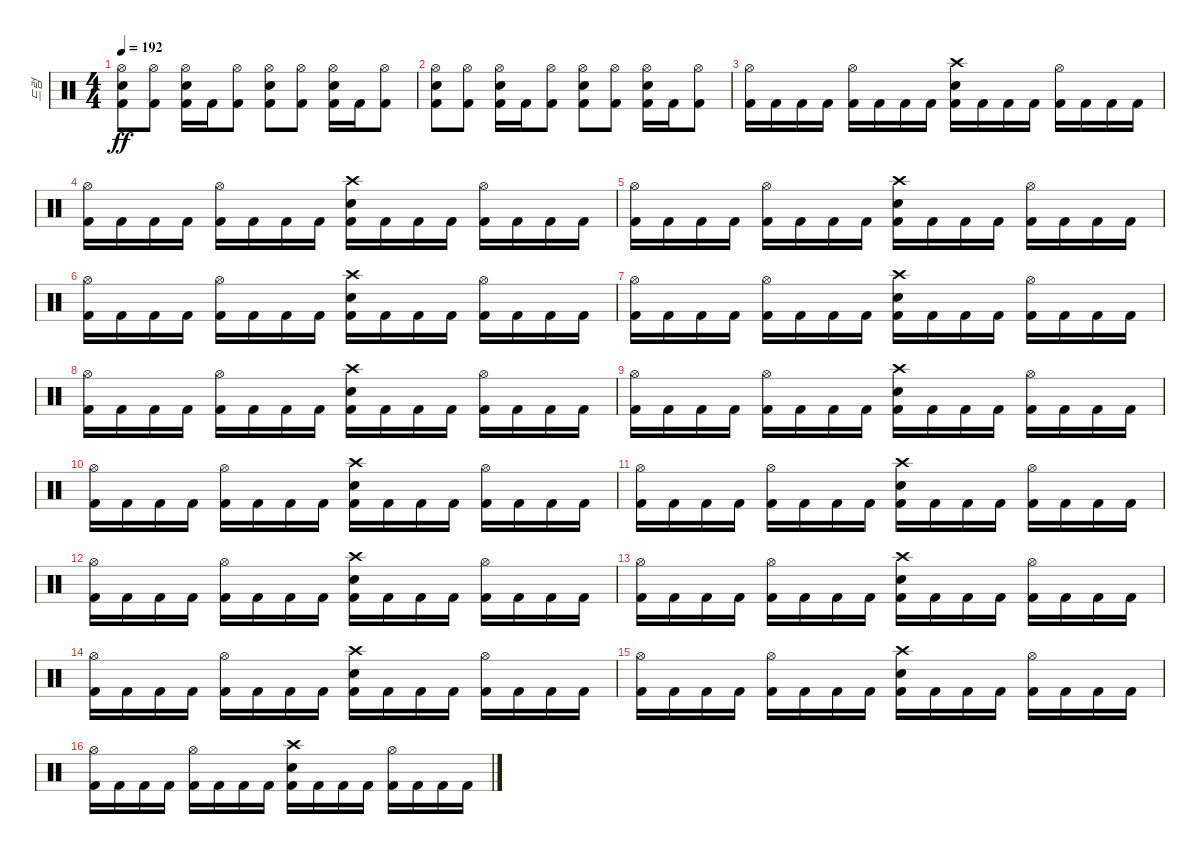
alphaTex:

\track ("드럼" "드럼") {instrument percussion}
\staff {score}
\articulation defaults
\ts (4 4)
\tempo 192
\clef neutral
\ks c
("Hi-Hat (open)" "Electric Snare (hit)" "Kick (hit) 2").8{dy ff} ("Hi-Hat (open)" "Kick (hit) 2").8 ("Hi-Hat (open)" "Electric Snare (hit)" "Kick (hit) 2").16 "Kick (hit) 2".16 ("Hi-Hat (open)" "Kick (hit) 2").8 ("Hi-Hat (open)" "Electric Snare (hit)" "Kick (hit) 2").8 ("Hi-Hat (open)" "Kick (hit) 2").8 ("Hi-Hat (open)" "Electric Snare (hit)" "Kick (hit) 2").16 "Kick (hit) 2".16 ("Hi-Hat (open)" "Kick (hit) 2").8 |
("Hi-Hat (open)" "Electric Snare (hit)" "Kick (hit) 2").8 ("Hi-Hat (open)" "Kick (hit) 2").8 ("Hi-Hat (open)" "Electric Snare (hit)" "Kick (hit) 2").16 "Kick (hit) 2".16 ("Hi-Hat (open)" "Kick (hit) 2").8 ("Hi-Hat (open)" "Electric Snare (hit)" "Kick (hit) 2").8 ("Hi-Hat (open)" "Kick (hit) 2").8 ("Hi-Hat (open)" "Electric Snare (hit)" "Kick (hit) 2").16 "Kick (hit) 2".16 ("Hi-Hat (open)" "Kick (hit) 2").8 |
("Hi-Hat (open)" "Kick (hit) 2").16 "Kick (hit) 2".16 "Kick (hit) 2".16 "Kick (hit) 2".16 ("Hi-Hat (open)" "Kick (hit) 2").16 "Kick (hit) 2".16 "Kick (hit) 2".16 "Kick (hit) 2".16 ("Crash high (hit)" "Electric Snare (hit)" "Kick (hit) 2").16 "Kick (hit) 2".16 "Kick (hit) 2".16 "Kick (hit) 2".16 ("Hi-Hat (open)" "Kick (hit) 2").16 "Kick (hit) 2".16 "Kick (hit) 2".16 "Kick (hit) 2".16 |
("Hi-Hat (open)" "Kick (hit) 2").16 "Kick (hit) 2".16 "Kick (hit) 2".16 "Kick (hit) 2".16 ("Hi-Hat (open)" "Kick (hit) 2").16 "Kick (hit) 2".16 "Kick (hit) 2".16 "Kick (hit) 2".16 ("Crash high (hit)" "Electric Snare (hit)" "Kick (hit) 2").16 "Kick (hit) 2".16 "Kick (hit) 2".16 "Kick (hit) 2".16 ("Hi-Hat (open)" "Kick (hit) 2").16 "Kick (hit) 2".16 "Kick (hit) 2".16 "Kick (hit) 2".16 |
("Hi-Hat (open)" "Kick (hit) 2").16 "Kick (hit) 2".16 "Kick (hit) 2".16 "Kick (hit) 2".16 ("Hi-Hat (open)" "Kick (hit) 2").16 "Kick (hit) 2".16 "Kick (hit) 2".16 "Kick (hit) 2".16 ("Crash high (hit)" "Electric Snare (hit)" "Kick (hit) 2").16 "Kick (hit) 2".16 "Kick (hit) 2".16 "Kick (hit) 2".16 ("Hi-Hat (open)" "Kick (hit) 2").16 "Kick (hit) 2".16 "Kick (hit) 2".16 "Kick (hit) 2".16 |
("Hi-Hat (open)" "Kick (hit) 2").16 "Kick (hit) 2".16 "Kick (hit) 2".16 "Kick (hit) 2".16 ("Hi-Hat (open)" "Kick (hit) 2").16 "Kick (hit) 2".16 "Kick (hit) 2".16 "Kick (hit) 2".16 ("Crash high (hit)" "Electric Snare (hit)" "Kick (hit) 2").16 "Kick (hit) 2".16 "Kick (hit) 2".16 "Kick (hit) 2".16 ("Hi-Hat (open)" "Kick (hit) 2").16 "Kick (hit) 2".16 "Kick (hit) 2".16 "Kick (hit) 2".16 |
("Hi-Hat (open)" "Kick (hit) 2").16 "Kick (hit) 2".16 "Kick (hit) 2".16 "Kick (hit) 2".16 ("Hi-Hat (open)" "Kick (hit) 2").16 "Kick (hit) 2".16 "Kick (hit) 2".16 "Kick (hit) 2".16 ("Crash high (hit)" "Electric Snare (hit)" "Kick (hit) 2").16 "Kick (hit) 2".16 "Kick (hit) 2".16 "Kick (hit) 2".16 ("Hi-Hat (open)" "Kick (hit) 2").16 "Kick (hit) 2".16 "Kick (hit) 2".16 "Kick (hit) 2".16 |
("Hi-Hat (open)" "Kick (hit) 2").16 "Kick (hit) 2".16 "Kick (hit) 2".16 "Kick (hit) 2".16 ("Hi-Hat (open)" "Kick (hit) 2").16 "Kick (hit) 2".16 "Kick (hit) 2".16 "Kick (hit) 2".16 ("Crash high (hit)" "Electric Snare (hit)" "Kick (hit) 2").16 "Kick (hit) 2".16 "Kick (hit) 2".16 "Kick (hit) 2".16 ("Hi-Hat (open)" "Kick (hit) 2").16 "Kick (hit) 2".16 "Kick (hit) 2".16 "Kick (hit) 2".16 |
("Hi-Hat (open)" "Kick (hit) 2").16 "Kick (hit) 2".16 "Kick (hit) 2".16 "Kick (hit) 2".16 ("Hi-Hat (open)" "Kick (hit) 2").16 "Kick (hit) 2".16 "Kick (hit) 2".16 "Kick (hit) 2".16 ("Crash high (hit)" "Electric Snare (hit)" "Kick (hit) 2").16 "Kick (hit) 2".16 "Kick (hit) 2".16 "Kick (hit) 2".16 ("Hi-Hat (open)" "Kick (hit) 2").16 "Kick (hit) 2".16 "Kick (hit) 2".16 "Kick (hit) 2".16 |
("Hi-Hat (open)" "Kick (hit) 2").16 "Kick (hit) 2".16 "Kick (hit) 2".16 "Kick (hit) 2".16 ("Hi-Hat (open)" "Kick (hit) 2").16 "Kick (hit) 2".16 "Kick (hit) 2".16 "Kick (hit) 2".16 ("Crash high (hit)" "Electric Snare (hit)" "Kick (hit) 2").16 "Kick (hit) 2".16 "Kick (hit) 2".16 "Kick (hit) 2".16 ("Hi-Hat (open)" "Kick (hit) 2").16 "Kick (hit) 2".16 "Kick (hit) 2".16 "Kick (hit) 2".16 |
("Hi-Hat (open)" "Kick (hit) 2").16 "Kick (hit) 2".16 "Kick (hit) 2".16 "Kick (hit) 2".16 ("Hi-Hat (open)" "Kick (hit) 2").16 "Kick (hit) 2".16 "Kick (hit) 2".16 "Kick (hit) 2".16 ("Crash high (hit)" "Electric Snare (hit)" "Kick (hit) 2").16 "Kick (hit) 2".16 "Kick (hit) 2".16 "Kick (hit) 2".16 ("Hi-Hat (open)" "Kick (hit) 2").16 "Kick (hit) 2".16 "Kick (hit) 2".16 "Kick (hit) 2".16 |
("Hi-Hat (open)" "Kick (hit) 2").16 "Kick (hit) 2".16 "Kick (hit) 2".16 "Kick (hit) 2".16 ("Hi-Hat (open)" "Kick (hit) 2").16 "Kick (hit) 2".16 "Kick (hit) 2".16 "Kick (hit) 2".16 ("Crash high (hit)" "Electric Snare (hit)" "Kick (hit) 2").16 "Kick (hit) 2".16 "Kick (hit) 2".16 "Kick (hit) 2".16 ("Hi-Hat (open)" "Kick (hit) 2").16 "Kick (hit) 2".16 "Kick (hit) 2".16 "Kick (hit) 2".16 |
("Hi-Hat (open)" "Kick (hit) 2").16 "Kick (hit) 2".16 "Kick (hit) 2".16 "Kick (hit) 2".16 ("Hi-Hat (open)" "Kick (hit) 2").16 "Kick (hit) 2".16 "Kick (hit) 2".16 "Kick (hit) 2".16 ("Crash high (hit)" "Electric Snare (hit)" "Kick (hit) 2").16 "Kick (hit) 2".16 "Kick (hit) 2".16 "Kick (hit) 2".16 ("Hi-Hat (open)" "Kick (hit) 2").16 "Kick (hit) 2".16 "Kick (hit) 2".16 "Kick (hit) 2".16 |
("Hi-Hat (open)" "Kick (hit) 2").16 "Kick (hit) 2".16 "Kick (hit) 2".16 "Kick (hit) 2".16 ("Hi-Hat (open)" "Kick (hit) 2").16 "Kick (hit) 2".16 "Kick (hit) 2".16 "Kick (hit) 2".16 ("Crash high (hit)" "Electric Snare (hit)" "Kick (hit) 2").16 "Kick (hit) 2".16 "Kick (hit) 2".16 "Kick (hit) 2".16 ("Hi-Hat (open)" "Kick (hit) 2").16 "Kick (hit) 2".16 "Kick (hit) 2".16 "Kick (hit) 2".16 |
("Hi-Hat (open)" "Kick (hit) 2").16 "Kick (hit) 2".16 "Kick (hit) 2".16 "Kick (hit) 2".16 ("Hi-Hat (open)" "Kick (hit) 2").16 "Kick (hit) 2".16 "Kick (hit) 2".16 "Kick (hit) 2".16 ("Crash high (hit)" "Electric Snare (hit)" "Kick (hit) 2").16 "Kick (hit) 2".16 "Kick (hit) 2".16 "Kick (hit) 2".16 ("Hi-Hat (open)" "Kick (hit) 2").16 "Kick (hit) 2".16 "Kick (hit) 2".16 "Kick (hit) 2".16 |
("Hi-Hat (open)" "Kick (hit) 2").16 "Kick (hit) 2".16 "Kick (hit) 2".16 "Kick (hit) 2".16 ("Hi-Hat (open)" "Kick (hit) 2").16 "Kick (hit) 2".16 "Kick (hit) 2".16 "Kick (hit) 2".16 ("Crash high (hit)" "Electric Snare (hit)" "Kick (hit) 2").16 "Kick (hit) 2".16 "Kick (hit) 2".16 "Kick (hit) 2".16 ("Hi-Hat (open)" "Kick (hit) 2").16 "Kick (hit) 2".16 "Kick (hit) 2".16 "Kick (hit) 2".16
